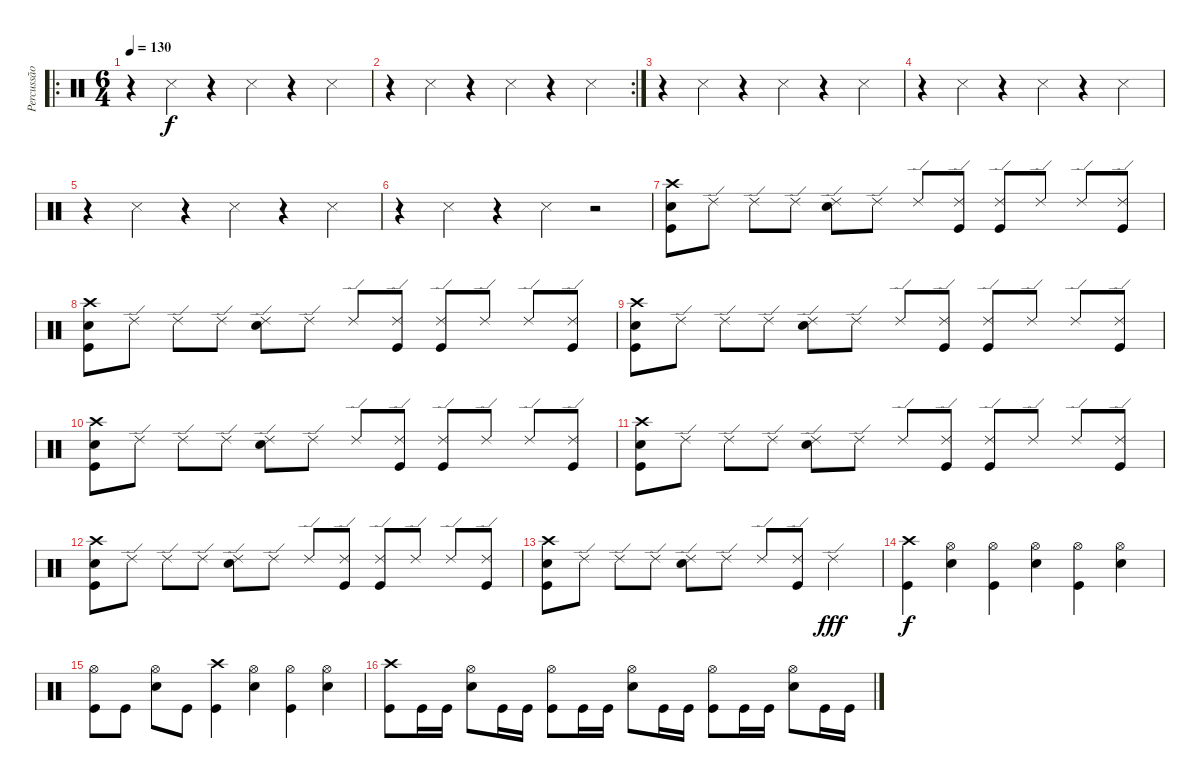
\track ("Percussão" "Percussão") {instrument percussion}
\staff {score}
\articulation defaults
\ro
\ts (6 4)
\tempo 130
\clef neutral
\ks c
r.4{dy f} "Snare (side stick) 3".4 r.4 "Snare (side stick) 3".4 r.4 "Snare (side stick) 3".4 |
\rc 2
r.4 "Snare (side stick) 3".4 r.4 "Snare (side stick) 3".4 r.4 "Snare (side stick) 3".4 |
r.4 "Snare (side stick) 3".4 r.4 "Snare (side stick) 3".4 r.4 "Snare (side stick) 3".4 |
r.4 "Snare (side stick) 3".4 r.4 "Snare (side stick) 3".4 r.4 "Snare (side stick) 3".4 |
r.4 "Snare (side stick) 3".4 r.4 "Snare (side stick) 3".4 r.4 "Snare (side stick) 3".4 |
r.4 "Snare (side stick) 3".4 r.4 "Snare (side stick) 3".4 r.2 |
("Crash high (hit)" "Snare (hit) 2" "Kick (hit)").8 "Ride (edge) 2".8 "Ride (edge) 2".8 "Ride (edge) 2".8 ("Ride (edge) 2" "Snare (hit) 2").8 "Ride (edge) 2".8 "Ride (edge) 2".8 ("Ride (edge) 2" "Kick (hit)").8 ("Ride (edge) 2" "Kick (hit)").8 "Ride (edge) 2".8 "Ride (edge) 2".8 ("Ride (edge) 2" "Kick (hit)").8 |
("Crash high (hit)" "Snare (hit) 2" "Kick (hit)").8 "Ride (edge) 2".8 "Ride (edge) 2".8 "Ride (edge) 2".8 ("Ride (edge) 2" "Snare (hit) 2").8 "Ride (edge) 2".8 "Ride (edge) 2".8 ("Ride (edge) 2" "Kick (hit)").8 ("Ride (edge) 2" "Kick (hit)").8 "Ride (edge) 2".8 "Ride (edge) 2".8 ("Ride (edge) 2" "Kick (hit)").8 |
("Crash high (hit)" "Snare (hit) 2" "Kick (hit)").8 "Ride (edge) 2".8 "Ride (edge) 2".8 "Ride (edge) 2".8 ("Ride (edge) 2" "Snare (hit) 2").8 "Ride (edge) 2".8 "Ride (edge) 2".8 ("Ride (edge) 2" "Kick (hit)").8 ("Ride (edge) 2" "Kick (hit)").8 "Ride (edge) 2".8 "Ride (edge) 2".8 ("Ride (edge) 2" "Kick (hit)").8 |
("Crash high (hit)" "Snare (hit) 2" "Kick (hit)").8 "Ride (edge) 2".8 "Ride (edge) 2".8 "Ride (edge) 2".8 ("Ride (edge) 2" "Snare (hit) 2").8 "Ride (edge) 2".8 "Ride (edge) 2".8 ("Ride (edge) 2" "Kick (hit)").8 ("Ride (edge) 2" "Kick (hit)").8 "Ride (edge) 2".8 "Ride (edge) 2".8 ("Ride (edge) 2" "Kick (hit)").8 |
("Crash high (hit)" "Snare (hit) 2" "Kick (hit)").8 "Ride (edge) 2".8 "Ride (edge) 2".8 "Ride (edge) 2".8 ("Ride (edge) 2" "Snare (hit) 2").8 "Ride (edge) 2".8 "Ride (edge) 2".8 ("Ride (edge) 2" "Kick (hit)").8 ("Ride (edge) 2" "Kick (hit)").8 "Ride (edge) 2".8 "Ride (edge) 2".8 ("Ride (edge) 2" "Kick (hit)").8 |
("Crash high (hit)" "Snare (hit) 2" "Kick (hit)").8 "Ride (edge) 2".8 "Ride (edge) 2".8 "Ride (edge) 2".8 ("Ride (edge) 2" "Snare (hit) 2").8 "Ride (edge) 2".8 "Ride (edge) 2".8 ("Ride (edge) 2" "Kick (hit)").8 ("Ride (edge) 2" "Kick (hit)").8 "Ride (edge) 2".8 "Ride (edge) 2".8 ("Ride (edge) 2" "Kick (hit)").8 |
("Crash high (hit)" "Snare (hit) 2" "Kick (hit)").8 "Ride (edge) 2".8 "Ride (edge) 2".8 "Ride (edge) 2".8 ("Ride (edge) 2" "Snare (hit) 2").8 "Ride (edge) 2".8 "Ride (edge) 2".8 ("Ride (edge) 2" "Kick (hit)").8 "Ride (edge) 2".2{dy fff} |
("Crash high (hit)" "Kick (hit)").4{dy f} ("Hi-Hat (open)" "Snare (hit) 2").4 ("Hi-Hat (open)" "Kick (hit)").4 ("Hi-Hat (open)" "Snare (hit) 2").4 ("Hi-Hat (open)" "Kick (hit)").4 ("Hi-Hat (open)" "Snare (hit) 2").4 |
("Hi-Hat (open)" "Kick (hit)").8 "Kick (hit)".8 ("Hi-Hat (open)" "Snare (hit) 2").8 "Kick (hit)".8 ("Crash high (hit)" "Kick (hit)").4 ("Hi-Hat (open)" "Snare (hit) 2").4 ("Hi-Hat (open)" "Kick (hit)").4 ("Hi-Hat (open)" "Snare (hit) 2").4 |
("Crash high (hit)" "Kick (hit)").8 "Kick (hit)".16 "Kick (hit)".16 ("Hi-Hat (open)" "Snare (hit) 2").8 "Kick (hit)".16 "Kick (hit)".16 ("Hi-Hat (open)" "Kick (hit)").8 "Kick (hit)".16 "Kick (hit)".16 ("Hi-Hat (open)" "Snare (hit) 2").8 "Kick (hit)".16 "Kick (hit)".16 ("Hi-Hat (open)" "Kick (hit)").8 "Kick (hit)".16 "Kick (hit)".16 ("Hi-Hat (open)" "Snare (hit) 2").8 "Kick (hit)".16 "Kick (hit)".16
